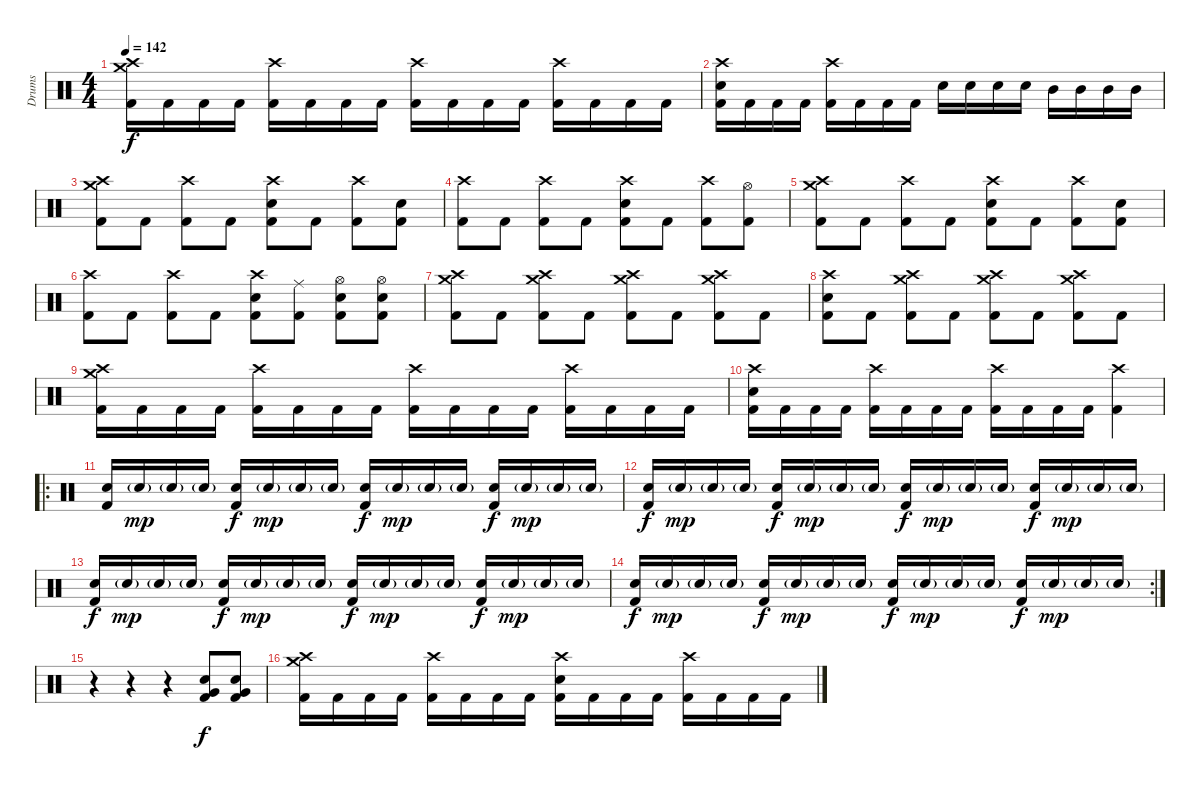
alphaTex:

\track ("Drums" "Drums") {instrument percussion}
\staff {score}
\articulation defaults
\ts (4 4)
\tempo 142
\clef neutral
\ks c
("Crash high (hit)" "Crash medium (hit)" "Kick (hit) 2").16{dy f} "Kick (hit) 2".16 "Kick (hit) 2".16 "Kick (hit) 2".16 ("Crash high (hit)" "Kick (hit) 2").16 "Kick (hit) 2".16 "Kick (hit) 2".16 "Kick (hit) 2".16 ("Crash high (hit)" "Kick (hit) 2").16 "Kick (hit) 2".16 "Kick (hit) 2".16 "Kick (hit) 2".16 ("Crash high (hit)" "Kick (hit) 2").16 "Kick (hit) 2".16 "Kick (hit) 2".16 "Kick (hit) 2".16 |
("Crash high (hit)" "Electric Snare (hit)" "Kick (hit) 2").16 "Kick (hit) 2".16 "Kick (hit) 2".16 "Kick (hit) 2".16 ("Crash high (hit)" "Kick (hit) 2").16 "Kick (hit) 2".16 "Kick (hit) 2".16 "Kick (hit) 2".16 "Electric Snare (hit)".16 "Electric Snare (hit)".16 "Electric Snare (hit)".16 "Electric Snare (hit)".16 "Mid Tom (hit)".16 "Mid Tom (hit)".16 "Mid Tom (hit)".16 "Mid Tom (hit)".16 |
("Crash medium (hit)" "Crash high (hit)" "Kick (hit) 2").8 "Kick (hit) 2".8 ("Crash high (hit)" "Kick (hit) 2").8 "Kick (hit) 2".8 ("Crash high (hit)" "Electric Snare (hit)" "Kick (hit) 2").8 "Kick (hit) 2".8 ("Crash high (hit)" "Kick (hit) 2").8 ("Electric Snare (hit)" "Kick (hit) 2").8 |
("Crash high (hit)" "Kick (hit) 2").8 "Kick (hit) 2".8 ("Crash high (hit)" "Kick (hit) 2").8 "Kick (hit) 2".8 ("Crash high (hit)" "Electric Snare (hit)" "Kick (hit) 2").8 "Kick (hit) 2".8 ("Crash high (hit)" "Kick (hit) 2").8 ("Hi-Hat (open)" "Kick (hit) 2").8 |
("Crash medium (hit)" "Crash high (hit)" "Kick (hit) 2").8 "Kick (hit) 2".8 ("Crash high (hit)" "Kick (hit) 2").8 "Kick (hit) 2".8 ("Crash high (hit)" "Electric Snare (hit)" "Kick (hit) 2").8 "Kick (hit) 2".8 ("Crash high (hit)" "Kick (hit) 2").8 ("Electric Snare (hit)" "Kick (hit) 2").8 |
("Crash high (hit)" "Kick (hit) 2").8 "Kick (hit) 2".8 ("Crash high (hit)" "Kick (hit) 2").8 "Kick (hit) 2".8 ("Crash high (hit)" "Electric Snare (hit)" "Kick (hit) 2").8 ("Ride (middle)" "Kick (hit) 2").8 ("Hi-Hat (open)" "Electric Snare (hit)" "Kick (hit) 2").8 ("Hi-Hat (open)" "Electric Snare (hit)" "Kick (hit) 2").8 |
("Crash medium (hit)" "Crash high (hit)" "Kick (hit) 2").8 "Kick (hit) 2".8 ("Crash medium (hit)" "Crash high (hit)" "Kick (hit) 2").8 "Kick (hit) 2".8 ("Crash medium (hit)" "Crash high (hit)" "Kick (hit) 2").8 "Kick (hit) 2".8 ("Crash medium (hit)" "Crash high (hit)" "Kick (hit) 2").8 "Kick (hit) 2".8 |
("Crash high (hit)" "Electric Snare (hit)" "Kick (hit) 2").8 "Kick (hit) 2".8 ("Crash medium (hit)" "Crash high (hit)" "Kick (hit) 2").8 "Kick (hit) 2".8 ("Crash medium (hit)" "Crash high (hit)" "Kick (hit) 2").8 "Kick (hit) 2".8 ("Crash medium (hit)" "Crash high (hit)" "Kick (hit) 2").8 "Kick (hit) 2".8 |
("Crash high (hit)" "Crash medium (hit)" "Kick (hit) 2").16 "Kick (hit) 2".16 "Kick (hit) 2".16 "Kick (hit) 2".16 ("Crash high (hit)" "Kick (hit) 2").16 "Kick (hit) 2".16 "Kick (hit) 2".16 "Kick (hit) 2".16 ("Crash high (hit)" "Kick (hit) 2").16 "Kick (hit) 2".16 "Kick (hit) 2".16 "Kick (hit) 2".16 ("Crash high (hit)" "Kick (hit) 2").16 "Kick (hit) 2".16 "Kick (hit) 2".16 "Kick (hit) 2".16 |
("Crash high (hit)" "Electric Snare (hit)" "Kick (hit) 2").16 "Kick (hit) 2".16 "Kick (hit) 2".16 "Kick (hit) 2".16 ("Crash high (hit)" "Kick (hit) 2").16 "Kick (hit) 2".16 "Kick (hit) 2".16 "Kick (hit) 2".16 ("Crash high (hit)" "Kick (hit) 2").16 "Kick (hit) 2".16 "Kick (hit) 2".16 "Kick (hit) 2".16 ("Crash high (hit)" "Kick (hit) 2").4 |
\ro
("Electric Snare (hit)" "Kick (hit) 2").16 "Electric Snare (hit)"{g}.16{dy mp} "Electric Snare (hit)"{g}.16 "Electric Snare (hit)"{g}.16 ("Electric Snare (hit)" "Kick (hit) 2").16{dy f} "Electric Snare (hit)"{g}.16{dy mp} "Electric Snare (hit)"{g}.16 "Electric Snare (hit)"{g}.16 ("Electric Snare (hit)" "Kick (hit) 2").16{dy f} "Electric Snare (hit)"{g}.16{dy mp} "Electric Snare (hit)"{g}.16 "Electric Snare (hit)"{g}.16 ("Electric Snare (hit)" "Kick (hit) 2").16{dy f} "Electric Snare (hit)"{g}.16{dy mp} "Electric Snare (hit)"{g}.16 "Electric Snare (hit)"{g}.16 |
("Electric Snare (hit)" "Kick (hit) 2").16{dy f} "Electric Snare (hit)"{g}.16{dy mp} "Electric Snare (hit)"{g}.16 "Electric Snare (hit)"{g}.16 ("Electric Snare (hit)" "Kick (hit) 2").16{dy f} "Electric Snare (hit)"{g}.16{dy mp} "Electric Snare (hit)"{g}.16 "Electric Snare (hit)"{g}.16 ("Electric Snare (hit)" "Kick (hit) 2").16{dy f} "Electric Snare (hit)"{g}.16{dy mp} "Electric Snare (hit)"{g}.16 "Electric Snare (hit)"{g}.16 ("Electric Snare (hit)" "Kick (hit) 2").16{dy f} "Electric Snare (hit)"{g}.16{dy mp} "Electric Snare (hit)"{g}.16 "Electric Snare (hit)"{g}.16 |
("Electric Snare (hit)" "Kick (hit) 2").16{dy f} "Electric Snare (hit)"{g}.16{dy mp} "Electric Snare (hit)"{g}.16 "Electric Snare (hit)"{g}.16 ("Electric Snare (hit)" "Kick (hit) 2").16{dy f} "Electric Snare (hit)"{g}.16{dy mp} "Electric Snare (hit)"{g}.16 "Electric Snare (hit)"{g}.16 ("Electric Snare (hit)" "Kick (hit) 2").16{dy f} "Electric Snare (hit)"{g}.16{dy mp} "Electric Snare (hit)"{g}.16 "Electric Snare (hit)"{g}.16 ("Electric Snare (hit)" "Kick (hit) 2").16{dy f} "Electric Snare (hit)"{g}.16{dy mp} "Electric Snare (hit)"{g}.16 "Electric Snare (hit)"{g}.16 |
\rc 2
("Electric Snare (hit)" "Kick (hit) 2").16{dy f} "Electric Snare (hit)"{g}.16{dy mp} "Electric Snare (hit)"{g}.16 "Electric Snare (hit)"{g}.16 ("Electric Snare (hit)" "Kick (hit) 2").16{dy f} "Electric Snare (hit)"{g}.16{dy mp} "Electric Snare (hit)"{g}.16 "Electric Snare (hit)"{g}.16 ("Electric Snare (hit)" "Kick (hit) 2").16{dy f} "Electric Snare (hit)"{g}.16{dy mp} "Electric Snare (hit)"{g}.16 "Electric Snare (hit)"{g}.16 ("Electric Snare (hit)" "Kick (hit) 2").16{dy f} "Electric Snare (hit)"{g}.16{dy mp} "Electric Snare (hit)"{g}.16 "Electric Snare (hit)"{g}.16 |
r.4 r.4 r.4 ("Very Low Tom (hit)" "Electric Snare (hit)" "Kick (hit) 2").8{dy f} ("Very Low Tom (hit)" "Electric Snare (hit)" "Kick (hit) 2").8 |
("Crash high (hit)" "Crash medium (hit)" "Kick (hit) 2").16 "Kick (hit) 2".16 "Kick (hit) 2".16 "Kick (hit) 2".16 ("Crash high (hit)" "Kick (hit) 2").16 "Kick (hit) 2".16 "Kick (hit) 2".16 "Kick (hit) 2".16 ("Crash high (hit)" "Electric Snare (hit)" "Kick (hit) 2").16 "Kick (hit) 2".16 "Kick (hit) 2".16 "Kick (hit) 2".16 ("Crash high (hit)" "Kick (hit) 2").16 "Kick (hit) 2".16 "Kick (hit) 2".16 "Kick (hit) 2".16
